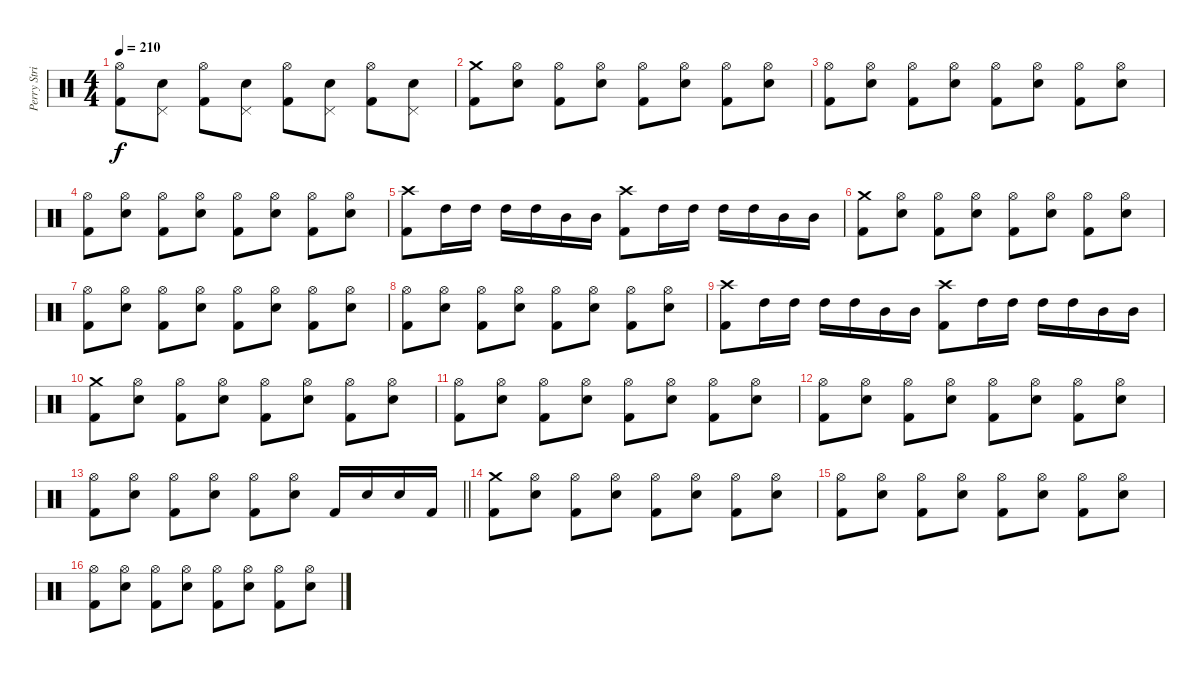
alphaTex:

\track ("Perry Strickland" "Perry Stri") {instrument percussion}
\staff {score}
\articulation defaults
\ts (4 4)
\tempo 210
\clef neutral
\ks c
("Hi-Hat (open)" "Kick (hit) 2").8{dy f} ("Pedal Hi-Hat (hit)" "Electric Snare (hit)").8 ("Hi-Hat (open)" "Kick (hit) 2").8 ("Pedal Hi-Hat (hit)" "Electric Snare (hit)").8 ("Hi-Hat (open)" "Kick (hit) 2").8 ("Pedal Hi-Hat (hit)" "Electric Snare (hit)").8 ("Hi-Hat (open)" "Kick (hit) 2").8 ("Pedal Hi-Hat (hit)" "Electric Snare (hit)").8 |
("Crash medium (hit)" "Kick (hit) 2").8 ("Hi-Hat (open)" "Electric Snare (hit)").8 ("Hi-Hat (open)" "Kick (hit) 2").8 ("Hi-Hat (open)" "Electric Snare (hit)").8 ("Hi-Hat (open)" "Kick (hit) 2").8 ("Hi-Hat (open)" "Electric Snare (hit)").8 ("Hi-Hat (open)" "Kick (hit) 2").8 ("Hi-Hat (open)" "Electric Snare (hit)").8 |
("Hi-Hat (open)" "Kick (hit) 2").8 ("Hi-Hat (open)" "Electric Snare (hit)").8 ("Hi-Hat (open)" "Kick (hit) 2").8 ("Hi-Hat (open)" "Electric Snare (hit)").8 ("Hi-Hat (open)" "Kick (hit) 2").8 ("Hi-Hat (open)" "Electric Snare (hit)").8 ("Hi-Hat (open)" "Kick (hit) 2").8 ("Hi-Hat (open)" "Electric Snare (hit)").8 |
("Hi-Hat (open)" "Kick (hit) 2").8 ("Hi-Hat (open)" "Electric Snare (hit)").8 ("Hi-Hat (open)" "Kick (hit) 2").8 ("Hi-Hat (open)" "Electric Snare (hit)").8 ("Hi-Hat (open)" "Kick (hit) 2").8 ("Hi-Hat (open)" "Electric Snare (hit)").8 ("Hi-Hat (open)" "Kick (hit) 2").8 ("Hi-Hat (open)" "Electric Snare (hit)").8 |
("Crash high (hit)" "Kick (hit) 2").8 "High Tom (hit)".16 "High Tom (hit)".16 "High Tom (hit)".16 "High Tom (hit)".16 "Mid Tom (hit)".16 "Mid Tom (hit)".16 ("Crash high (hit)" "Kick (hit) 2").8 "High Tom (hit)".16 "High Tom (hit)".16 "High Tom (hit)".16 "High Tom (hit)".16 "Mid Tom (hit)".16 "Mid Tom (hit)".16 |
("Crash medium (hit)" "Kick (hit) 2").8 ("Hi-Hat (open)" "Electric Snare (hit)").8 ("Hi-Hat (open)" "Kick (hit) 2").8 ("Hi-Hat (open)" "Electric Snare (hit)").8 ("Hi-Hat (open)" "Kick (hit) 2").8 ("Hi-Hat (open)" "Electric Snare (hit)").8 ("Hi-Hat (open)" "Kick (hit) 2").8 ("Hi-Hat (open)" "Electric Snare (hit)").8 |
("Hi-Hat (open)" "Kick (hit) 2").8 ("Hi-Hat (open)" "Electric Snare (hit)").8 ("Hi-Hat (open)" "Kick (hit) 2").8 ("Hi-Hat (open)" "Electric Snare (hit)").8 ("Hi-Hat (open)" "Kick (hit) 2").8 ("Hi-Hat (open)" "Electric Snare (hit)").8 ("Hi-Hat (open)" "Kick (hit) 2").8 ("Hi-Hat (open)" "Electric Snare (hit)").8 |
("Hi-Hat (open)" "Kick (hit) 2").8 ("Hi-Hat (open)" "Electric Snare (hit)").8 ("Hi-Hat (open)" "Kick (hit) 2").8 ("Hi-Hat (open)" "Electric Snare (hit)").8 ("Hi-Hat (open)" "Kick (hit) 2").8 ("Hi-Hat (open)" "Electric Snare (hit)").8 ("Hi-Hat (open)" "Kick (hit) 2").8 ("Hi-Hat (open)" "Electric Snare (hit)").8 |
("Crash high (hit)" "Kick (hit) 2").8 "High Tom (hit)".16 "High Tom (hit)".16 "High Tom (hit)".16 "High Tom (hit)".16 "Mid Tom (hit)".16 "Mid Tom (hit)".16 ("Crash high (hit)" "Kick (hit) 2").8 "High Tom (hit)".16 "High Tom (hit)".16 "High Tom (hit)".16 "High Tom (hit)".16 "Mid Tom (hit)".16 "Mid Tom (hit)".16 |
("Crash medium (hit)" "Kick (hit) 2").8 ("Hi-Hat (open)" "Electric Snare (hit)").8 ("Hi-Hat (open)" "Kick (hit) 2").8 ("Hi-Hat (open)" "Electric Snare (hit)").8 ("Hi-Hat (open)" "Kick (hit) 2").8 ("Hi-Hat (open)" "Electric Snare (hit)").8 ("Hi-Hat (open)" "Kick (hit) 2").8 ("Hi-Hat (open)" "Electric Snare (hit)").8 |
("Hi-Hat (open)" "Kick (hit) 2").8 ("Hi-Hat (open)" "Electric Snare (hit)").8 ("Hi-Hat (open)" "Kick (hit) 2").8 ("Hi-Hat (open)" "Electric Snare (hit)").8 ("Hi-Hat (open)" "Kick (hit) 2").8 ("Hi-Hat (open)" "Electric Snare (hit)").8 ("Hi-Hat (open)" "Kick (hit) 2").8 ("Hi-Hat (open)" "Electric Snare (hit)").8 |
("Hi-Hat (open)" "Kick (hit) 2").8 ("Hi-Hat (open)" "Electric Snare (hit)").8 ("Hi-Hat (open)" "Kick (hit) 2").8 ("Hi-Hat (open)" "Electric Snare (hit)").8 ("Hi-Hat (open)" "Kick (hit) 2").8 ("Hi-Hat (open)" "Electric Snare (hit)").8 ("Hi-Hat (open)" "Kick (hit) 2").8 ("Hi-Hat (open)" "Electric Snare (hit)").8 |
\barLineRight lightlight
("Hi-Hat (open)" "Kick (hit) 2").8 ("Hi-Hat (open)" "Electric Snare (hit)").8 ("Hi-Hat (open)" "Kick (hit) 2").8 ("Hi-Hat (open)" "Electric Snare (hit)").8 ("Hi-Hat (open)" "Kick (hit) 2").8 ("Hi-Hat (open)" "Electric Snare (hit)").8 "Kick (hit) 2".16 "Electric Snare (hit)".16 "Electric Snare (hit)".16 "Kick (hit) 2".16 |
("Crash medium (hit)" "Kick (hit) 2").8 ("Hi-Hat (open)" "Electric Snare (hit)").8 ("Hi-Hat (open)" "Kick (hit) 2").8 ("Hi-Hat (open)" "Electric Snare (hit)").8 ("Hi-Hat (open)" "Kick (hit) 2").8 ("Hi-Hat (open)" "Electric Snare (hit)").8 ("Hi-Hat (open)" "Kick (hit) 2").8 ("Hi-Hat (open)" "Electric Snare (hit)").8 |
("Hi-Hat (open)" "Kick (hit) 2").8 ("Hi-Hat (open)" "Electric Snare (hit)").8 ("Hi-Hat (open)" "Kick (hit) 2").8 ("Hi-Hat (open)" "Electric Snare (hit)").8 ("Hi-Hat (open)" "Kick (hit) 2").8 ("Hi-Hat (open)" "Electric Snare (hit)").8 ("Hi-Hat (open)" "Kick (hit) 2").8 ("Hi-Hat (open)" "Electric Snare (hit)").8 |
("Hi-Hat (open)" "Kick (hit) 2").8 ("Hi-Hat (open)" "Electric Snare (hit)").8 ("Hi-Hat (open)" "Kick (hit) 2").8 ("Hi-Hat (open)" "Electric Snare (hit)").8 ("Hi-Hat (open)" "Kick (hit) 2").8 ("Hi-Hat (open)" "Electric Snare (hit)").8 ("Hi-Hat (open)" "Kick (hit) 2").8 ("Hi-Hat (open)" "Electric Snare (hit)").8
